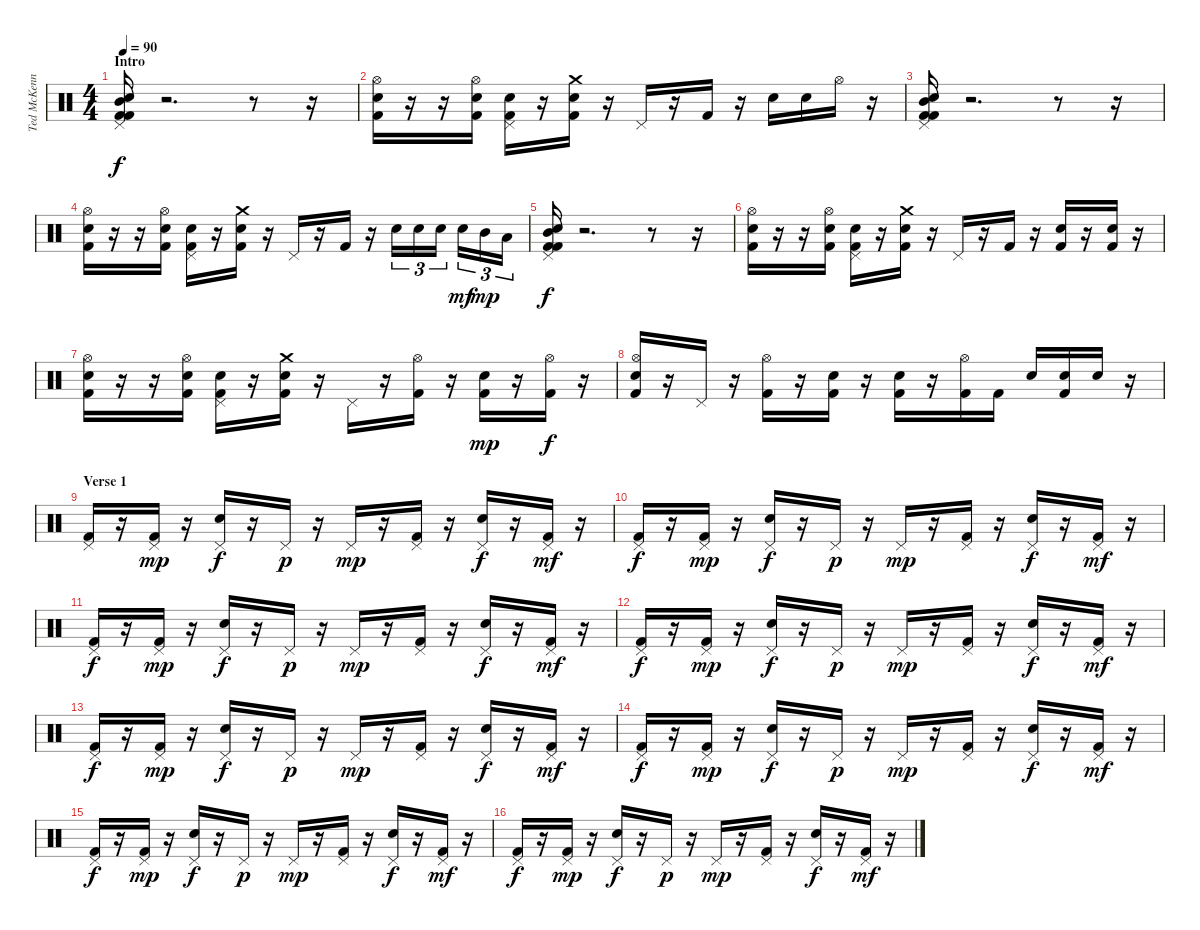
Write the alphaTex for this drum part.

\track ("Ted McKenna" "Ted McKenn") {instrument percussion}
\staff {score}
\articulation defaults
\ts (4 4)
\section ("" "Intro")
\tempo 90
\clef neutral
\ks c
("Pedal Hi-Hat (hit)" "Electric Snare (hit)" "Mid Tom (hit)" "Kick (hit) 2" "Kick (hit) 2").16{dy f} r.2{d} r.8 r.16 |
("Hi-Hat (open)" "Snare (hit) 2" "Kick (hit) 2").16 r.16 r.16 ("Hi-Hat (open)" "Electric Snare (hit)" "Kick (hit) 2").16 ("Pedal Hi-Hat (hit)" "Electric Snare (hit)" "Kick (hit) 2").16 r.16 ("Crash medium (hit)" "Electric Snare (hit)" "Kick (hit) 2").16 r.16 "Pedal Hi-Hat (hit)".16 r.16 "Kick (hit) 2".16 r.16 "Electric Snare (hit)".16 "Electric Snare (hit)".16 "Hi-Hat (open)".16 r.16 |
("Pedal Hi-Hat (hit)" "Electric Snare (hit)" "Mid Tom (hit)" "Kick (hit) 2" "Kick (hit) 2").16 r.2{d} r.8 r.16 |
("Hi-Hat (open)" "Snare (hit) 2" "Kick (hit) 2").16 r.16 r.16 ("Hi-Hat (open)" "Electric Snare (hit)" "Kick (hit) 2").16 ("Pedal Hi-Hat (hit)" "Electric Snare (hit)" "Kick (hit) 2").16 r.16 ("Crash medium (hit)" "Electric Snare (hit)" "Kick (hit) 2").16 r.16 "Pedal Hi-Hat (hit)".16 r.16 "Kick (hit) 2".16 r.16 "Electric Snare (hit)".16{tu (3 2)} "Electric Snare (hit)".16{tu (3 2)} "Electric Snare (hit)".16{tu (3 2)} "Snare (hit) 2".16{tu (3 2) dy mf} "Mid Tom (hit)".16{tu (3 2) dy mp} "Low Tom (hit)".16{tu (3 2)} |
("Pedal Hi-Hat (hit)" "Electric Snare (hit)" "Mid Tom (hit)" "Kick (hit) 2" "Kick (hit) 2").16{dy f} r.2{d} r.8 r.16 |
("Hi-Hat (open)" "Snare (hit) 2" "Kick (hit) 2").16 r.16 r.16 ("Hi-Hat (open)" "Electric Snare (hit)" "Kick (hit) 2").16 ("Pedal Hi-Hat (hit)" "Electric Snare (hit)" "Kick (hit) 2").16 r.16 ("Crash medium (hit)" "Electric Snare (hit)" "Kick (hit) 2").16 r.16 "Pedal Hi-Hat (hit)".16 r.16 "Kick (hit) 2".16 r.16 ("Electric Snare (hit)" "Kick (hit) 2").16 r.16 ("Electric Snare (hit)" "Kick (hit) 2").16 r.16 |
("Hi-Hat (open)" "Snare (hit) 2" "Kick (hit) 2").16 r.16 r.16 ("Hi-Hat (open)" "Electric Snare (hit)" "Kick (hit) 2").16 ("Pedal Hi-Hat (hit)" "Electric Snare (hit)" "Kick (hit) 2").16 r.16 ("Crash medium (hit)" "Electric Snare (hit)" "Kick (hit) 2").16 r.16 "Pedal Hi-Hat (hit)".16 r.16 ("Hi-Hat (open)" "Kick (hit) 2").16 r.16 ("Snare (hit) 2" "Kick (hit) 2").16{dy mp} r.16 ("Hi-Hat (open)" "Kick (hit) 2").16{dy f} r.16 |
("Hi-Hat (open)" "Snare (hit) 2" "Kick (hit) 2").16 r.16 "Pedal Hi-Hat (hit)".16 r.16 ("Hi-Hat (open)" "Kick (hit) 2").16 r.16 ("Electric Snare (hit)" "Kick (hit) 2").16 r.16 ("Electric Snare (hit)" "Kick (hit) 2").16 r.16 ("Hi-Hat (open)" "Kick (hit) 2").16 "Kick (hit) 2".16 "Electric Snare (hit)".16 ("Electric Snare (hit)" "Kick (hit) 2").16 "Electric Snare (hit)".16 r.16 |
\section ("" "Verse 1")
("Pedal Hi-Hat (hit)" "Kick (hit) 2").16 r.16 ("Pedal Hi-Hat (hit)" "Kick (hit) 2").16{dy mp} r.16 ("Pedal Hi-Hat (hit)" "Snare (hit) 2").16{dy f} r.16 "Pedal Hi-Hat (hit)".16{dy p} r.16 "Pedal Hi-Hat (hit)".16{dy mp} r.16 ("Pedal Hi-Hat (hit)" "Kick (hit) 2").16 r.16 ("Pedal Hi-Hat (hit)" "Snare (hit) 2").16{dy f} r.16 ("Pedal Hi-Hat (hit)" "Kick (hit) 2").16{dy mf} r.16 |
("Pedal Hi-Hat (hit)" "Kick (hit) 2").16{dy f} r.16 ("Pedal Hi-Hat (hit)" "Kick (hit) 2").16{dy mp} r.16 ("Pedal Hi-Hat (hit)" "Snare (hit) 2").16{dy f} r.16 "Pedal Hi-Hat (hit)".16{dy p} r.16 "Pedal Hi-Hat (hit)".16{dy mp} r.16 ("Pedal Hi-Hat (hit)" "Kick (hit) 2").16 r.16 ("Pedal Hi-Hat (hit)" "Snare (hit) 2").16{dy f} r.16 ("Pedal Hi-Hat (hit)" "Kick (hit) 2").16{dy mf} r.16 |
("Pedal Hi-Hat (hit)" "Kick (hit) 2").16{dy f} r.16 ("Pedal Hi-Hat (hit)" "Kick (hit) 2").16{dy mp} r.16 ("Pedal Hi-Hat (hit)" "Snare (hit) 2").16{dy f} r.16 "Pedal Hi-Hat (hit)".16{dy p} r.16 "Pedal Hi-Hat (hit)".16{dy mp} r.16 ("Pedal Hi-Hat (hit)" "Kick (hit) 2").16 r.16 ("Pedal Hi-Hat (hit)" "Snare (hit) 2").16{dy f} r.16 ("Pedal Hi-Hat (hit)" "Kick (hit) 2").16{dy mf} r.16 |
("Pedal Hi-Hat (hit)" "Kick (hit) 2").16{dy f} r.16 ("Pedal Hi-Hat (hit)" "Kick (hit) 2").16{dy mp} r.16 ("Pedal Hi-Hat (hit)" "Snare (hit) 2").16{dy f} r.16 "Pedal Hi-Hat (hit)".16{dy p} r.16 "Pedal Hi-Hat (hit)".16{dy mp} r.16 ("Pedal Hi-Hat (hit)" "Kick (hit) 2").16 r.16 ("Pedal Hi-Hat (hit)" "Snare (hit) 2").16{dy f} r.16 ("Pedal Hi-Hat (hit)" "Kick (hit) 2").16{dy mf} r.16 |
("Pedal Hi-Hat (hit)" "Kick (hit) 2").16{dy f} r.16 ("Pedal Hi-Hat (hit)" "Kick (hit) 2").16{dy mp} r.16 ("Pedal Hi-Hat (hit)" "Snare (hit) 2").16{dy f} r.16 "Pedal Hi-Hat (hit)".16{dy p} r.16 "Pedal Hi-Hat (hit)".16{dy mp} r.16 ("Pedal Hi-Hat (hit)" "Kick (hit) 2").16 r.16 ("Pedal Hi-Hat (hit)" "Snare (hit) 2").16{dy f} r.16 ("Pedal Hi-Hat (hit)" "Kick (hit) 2").16{dy mf} r.16 |
("Pedal Hi-Hat (hit)" "Kick (hit) 2").16{dy f} r.16 ("Pedal Hi-Hat (hit)" "Kick (hit) 2").16{dy mp} r.16 ("Pedal Hi-Hat (hit)" "Snare (hit) 2").16{dy f} r.16 "Pedal Hi-Hat (hit)".16{dy p} r.16 "Pedal Hi-Hat (hit)".16{dy mp} r.16 ("Pedal Hi-Hat (hit)" "Kick (hit) 2").16 r.16 ("Pedal Hi-Hat (hit)" "Snare (hit) 2").16{dy f} r.16 ("Pedal Hi-Hat (hit)" "Kick (hit) 2").16{dy mf} r.16 |
("Pedal Hi-Hat (hit)" "Kick (hit) 2").16{dy f} r.16 ("Pedal Hi-Hat (hit)" "Kick (hit) 2").16{dy mp} r.16 ("Pedal Hi-Hat (hit)" "Snare (hit) 2").16{dy f} r.16 "Pedal Hi-Hat (hit)".16{dy p} r.16 "Pedal Hi-Hat (hit)".16{dy mp} r.16 ("Pedal Hi-Hat (hit)" "Kick (hit) 2").16 r.16 ("Pedal Hi-Hat (hit)" "Snare (hit) 2").16{dy f} r.16 ("Pedal Hi-Hat (hit)" "Kick (hit) 2").16{dy mf} r.16 |
("Pedal Hi-Hat (hit)" "Kick (hit) 2").16{dy f} r.16 ("Pedal Hi-Hat (hit)" "Kick (hit) 2").16{dy mp} r.16 ("Pedal Hi-Hat (hit)" "Snare (hit) 2").16{dy f} r.16 "Pedal Hi-Hat (hit)".16{dy p} r.16 "Pedal Hi-Hat (hit)".16{dy mp} r.16 ("Pedal Hi-Hat (hit)" "Kick (hit) 2").16 r.16 ("Pedal Hi-Hat (hit)" "Snare (hit) 2").16{dy f} r.16 ("Pedal Hi-Hat (hit)" "Kick (hit) 2").16{dy mf} r.16
